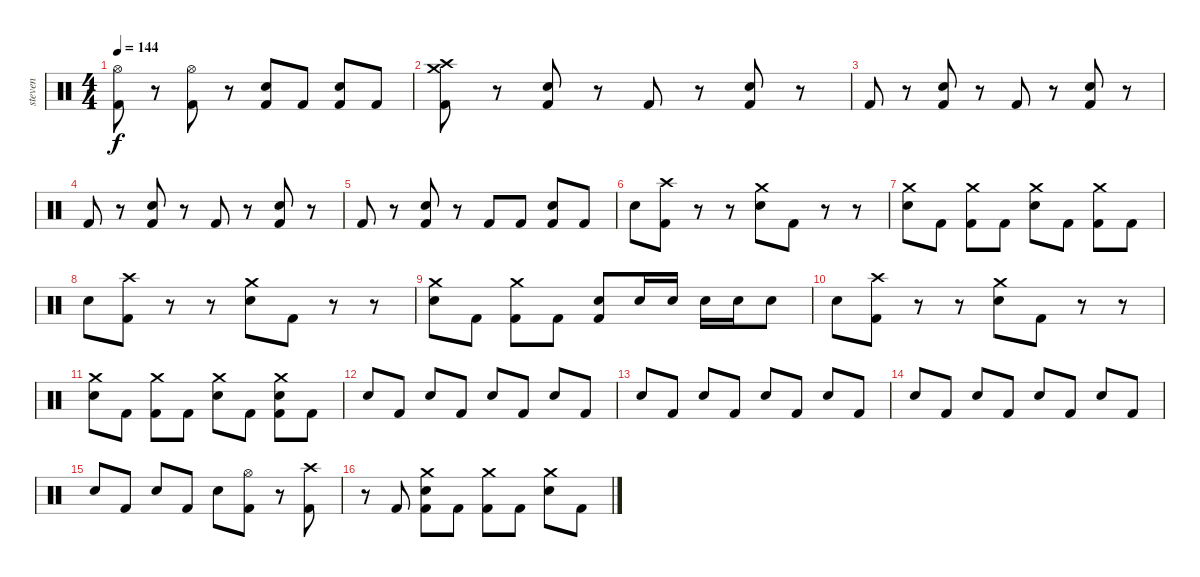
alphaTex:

\track ("steven" "steven") {instrument percussion}
\staff {score}
\articulation defaults
\ts (4 4)
\tempo 144
\clef neutral
\ks c
("Hi-Hat (open)" "Kick (hit) 2").8{dy f} r.8 ("Hi-Hat (open)" "Kick (hit) 2").8 r.8 ("Electric Snare (hit)" "Kick (hit) 2").8 "Kick (hit) 2".8 ("Electric Snare (hit)" "Kick (hit) 2").8 "Kick (hit) 2".8 |
("Crash high (hit)" "Crash medium (hit)" "Kick (hit) 2").8 r.8 ("Electric Snare (hit)" "Kick (hit) 2").8 r.8 "Kick (hit) 2".8 r.8 ("Electric Snare (hit)" "Kick (hit) 2").8 r.8 |
"Kick (hit) 2".8 r.8 ("Electric Snare (hit)" "Kick (hit) 2").8 r.8 "Kick (hit) 2".8 r.8 ("Electric Snare (hit)" "Kick (hit) 2").8 r.8 |
"Kick (hit) 2".8 r.8 ("Electric Snare (hit)" "Kick (hit) 2").8 r.8 "Kick (hit) 2".8 r.8 ("Electric Snare (hit)" "Kick (hit) 2").8 r.8 |
"Kick (hit) 2".8 r.8 ("Electric Snare (hit)" "Kick (hit) 2").8 r.8 "Kick (hit) 2".8 "Kick (hit) 2".8 ("Electric Snare (hit)" "Kick (hit) 2").8 "Kick (hit) 2".8 |
"Electric Snare (hit)".8 ("Crash high (hit)" "Kick (hit) 2").8 r.8 r.8 ("Crash medium (hit)" "Electric Snare (hit)").8 "Kick (hit) 2".8 r.8 r.8 |
("Crash medium (hit)" "Electric Snare (hit)").8 "Kick (hit) 2".8 ("Crash medium (hit)" "Kick (hit) 2").8 "Kick (hit) 2".8 ("Crash medium (hit)" "Electric Snare (hit)").8 "Kick (hit) 2".8 ("Crash medium (hit)" "Kick (hit) 2").8 "Kick (hit) 2".8 |
"Electric Snare (hit)".8 ("Crash high (hit)" "Kick (hit) 2").8 r.8 r.8 ("Crash medium (hit)" "Electric Snare (hit)").8 "Kick (hit) 2".8 r.8 r.8 |
("Crash medium (hit)" "Electric Snare (hit)").8 "Kick (hit) 2".8 ("Crash medium (hit)" "Kick (hit) 2").8 "Kick (hit) 2".8 ("Electric Snare (hit)" "Kick (hit) 2").8 "Electric Snare (hit)".16 "Electric Snare (hit)".16 "Electric Snare (hit)".16 "Electric Snare (hit)".16 "Electric Snare (hit)".8 |
"Electric Snare (hit)".8 ("Crash high (hit)" "Kick (hit) 2").8 r.8 r.8 ("Crash medium (hit)" "Electric Snare (hit)").8 "Kick (hit) 2".8 r.8 r.8 |
("Crash medium (hit)" "Electric Snare (hit)").8 "Kick (hit) 2".8 ("Crash medium (hit)" "Kick (hit) 2").8 "Kick (hit) 2".8 ("Crash medium (hit)" "Electric Snare (hit)").8 "Kick (hit) 2".8 ("Crash medium (hit)" "Electric Snare (hit)" "Kick (hit) 2").8 "Kick (hit) 2".8 |
"Electric Snare (hit)".8 "Kick (hit) 2".8 "Electric Snare (hit)".8 "Kick (hit) 2".8 "Electric Snare (hit)".8 "Kick (hit) 2".8 "Electric Snare (hit)".8 "Kick (hit) 2".8 |
"Electric Snare (hit)".8 "Kick (hit) 2".8 "Electric Snare (hit)".8 "Kick (hit) 2".8 "Electric Snare (hit)".8 "Kick (hit) 2".8 "Electric Snare (hit)".8 "Kick (hit) 2".8 |
"Electric Snare (hit)".8 "Kick (hit) 2".8 "Electric Snare (hit)".8 "Kick (hit) 2".8 "Electric Snare (hit)".8 "Kick (hit) 2".8 "Electric Snare (hit)".8 "Kick (hit) 2".8 |
"Electric Snare (hit)".8 "Kick (hit) 2".8 "Electric Snare (hit)".8 "Kick (hit) 2".8 "Electric Snare (hit)".8 ("Hi-Hat (open)" "Kick (hit) 2").8 r.8 ("Crash high (hit)" "Kick (hit) 2").8 |
r.8 "Kick (hit) 2".8 ("Crash medium (hit)" "Electric Snare (hit)" "Kick (hit) 2").8 "Kick (hit) 2".8 ("Crash medium (hit)" "Kick (hit) 2").8 "Kick (hit) 2".8 ("Crash medium (hit)" "Electric Snare (hit)").8 "Kick (hit) 2".8
